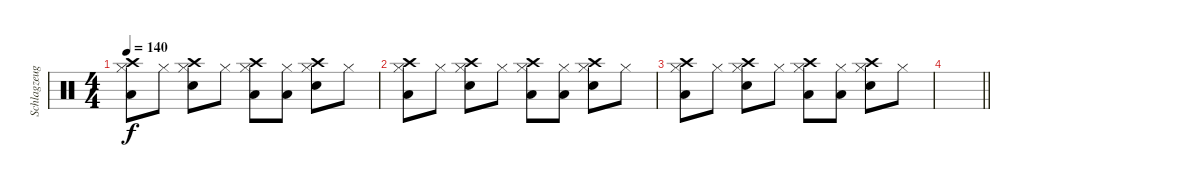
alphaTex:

\track ("Schlagzeug 2nd" "Schlagzeug") {instrument percussion}
\staff {score}
\articulation defaults
\ts (4 4)
\tempo 140
\clef neutral
\ks c
("Crash high (hit)" "Hi-Hat (closed)" "Low Tom (hit)").8{dy f} "Hi-Hat (closed)".8 ("Crash high (hit)" "Hi-Hat (closed)" "Electric Snare (hit)").8 "Hi-Hat (closed)".8 ("Crash high (hit)" "Hi-Hat (closed)" "Low Tom (hit)").8 ("Hi-Hat (closed)" "Low Tom (hit)").8 ("Crash high (hit)" "Hi-Hat (closed)" "Electric Snare (hit)").8 "Hi-Hat (closed)".8 |
("Crash high (hit)" "Hi-Hat (closed)" "Low Tom (hit)").8 "Hi-Hat (closed)".8 ("Crash high (hit)" "Hi-Hat (closed)" "Electric Snare (hit)").8 "Hi-Hat (closed)".8 ("Crash high (hit)" "Hi-Hat (closed)" "Low Tom (hit)").8 ("Hi-Hat (closed)" "Low Tom (hit)").8 ("Crash high (hit)" "Hi-Hat (closed)" "Electric Snare (hit)").8 "Hi-Hat (closed)".8 |
("Crash high (hit)" "Hi-Hat (closed)" "Low Tom (hit)").8 "Hi-Hat (closed)".8 ("Crash high (hit)" "Hi-Hat (closed)" "Electric Snare (hit)").8 "Hi-Hat (closed)".8 ("Crash high (hit)" "Hi-Hat (closed)" "Low Tom (hit)").8 ("Hi-Hat (closed)" "Low Tom (hit)").8 ("Crash high (hit)" "Hi-Hat (closed)" "Electric Snare (hit)").8 "Hi-Hat (closed)".8 |
\barLineRight lightlight
